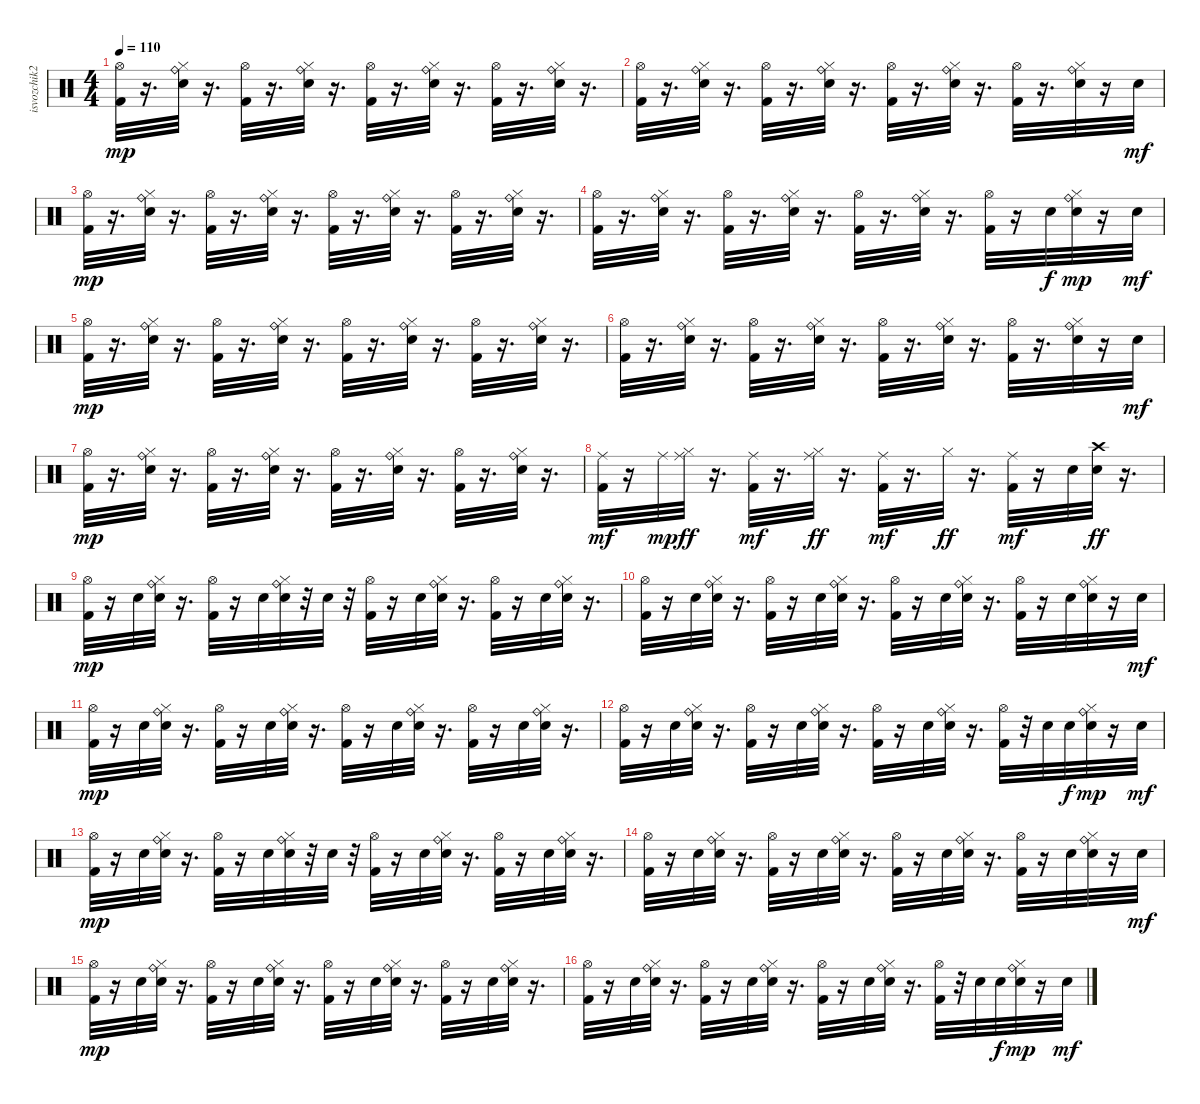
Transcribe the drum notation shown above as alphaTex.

\track ("isvozchik2" "isvozchik2") {instrument percussion}
\staff {score}
\articulation defaults
\ts (4 4)
\tempo 110
\clef neutral
\ks c
("Kick (hit) 2" "Hi-Hat (open)").32{dy mp} r.16{d} ("Hand Clap (hit)" "Hi-Hat (closed)" "Ride (bell)").32 r.16{d} ("Kick (hit) 2" "Hi-Hat (open)").32 r.16{d} ("Hand Clap (hit)" "Hi-Hat (closed)" "Ride (bell)").32 r.16{d} ("Kick (hit) 2" "Hi-Hat (open)").32 r.16{d} ("Hand Clap (hit)" "Hi-Hat (closed)" "Ride (bell)").32 r.16{d} ("Kick (hit) 2" "Hi-Hat (open)").32 r.16{d} ("Hand Clap (hit)" "Hi-Hat (closed)" "Ride (bell)").32 r.16{d} |
("Kick (hit) 2" "Hi-Hat (open)").32 r.16{d} ("Hand Clap (hit)" "Hi-Hat (closed)" "Ride (bell)").32 r.16{d} ("Kick (hit) 2" "Hi-Hat (open)").32 r.16{d} ("Hand Clap (hit)" "Hi-Hat (closed)" "Ride (bell)").32 r.16{d} ("Kick (hit) 2" "Hi-Hat (open)").32 r.16{d} ("Hand Clap (hit)" "Hi-Hat (closed)" "Ride (bell)").32 r.16{d} ("Kick (hit) 2" "Hi-Hat (open)").32 r.16{d} ("Hand Clap (hit)" "Hi-Hat (closed)" "Ride (bell)").32 r.16 "Hand Clap (hit)".32{dy mf} |
("Kick (hit) 2" "Hi-Hat (open)").32{dy mp} r.16{d} ("Hand Clap (hit)" "Hi-Hat (closed)" "Ride (bell)").32 r.16{d} ("Kick (hit) 2" "Hi-Hat (open)").32 r.16{d} ("Hand Clap (hit)" "Hi-Hat (closed)" "Ride (bell)").32 r.16{d} ("Kick (hit) 2" "Hi-Hat (open)").32 r.16{d} ("Hand Clap (hit)" "Hi-Hat (closed)" "Ride (bell)").32 r.16{d} ("Kick (hit) 2" "Hi-Hat (open)").32 r.16{d} ("Hand Clap (hit)" "Hi-Hat (closed)" "Ride (bell)").32 r.16{d} |
("Kick (hit) 2" "Hi-Hat (open)").32 r.16{d} ("Hand Clap (hit)" "Hi-Hat (closed)" "Ride (bell)").32 r.16{d} ("Kick (hit) 2" "Hi-Hat (open)").32 r.16{d} ("Hand Clap (hit)" "Hi-Hat (closed)" "Ride (bell)").32 r.16{d} ("Kick (hit) 2" "Hi-Hat (open)").32 r.16{d} ("Hand Clap (hit)" "Hi-Hat (closed)" "Ride (bell)").32 r.16{d} ("Kick (hit) 2" "Hi-Hat (open)").32 r.16 "Hand Clap (hit)".32{dy f} ("Hand Clap (hit)" "Hi-Hat (closed)" "Ride (bell)").32{dy mp} r.16 "Hand Clap (hit)".32{dy mf} |
("Kick (hit) 2" "Hi-Hat (open)").32{dy mp} r.16{d} ("Hand Clap (hit)" "Hi-Hat (closed)" "Ride (bell)").32 r.16{d} ("Kick (hit) 2" "Hi-Hat (open)").32 r.16{d} ("Hand Clap (hit)" "Hi-Hat (closed)" "Ride (bell)").32 r.16{d} ("Kick (hit) 2" "Hi-Hat (open)").32 r.16{d} ("Hand Clap (hit)" "Hi-Hat (closed)" "Ride (bell)").32 r.16{d} ("Kick (hit) 2" "Hi-Hat (open)").32 r.16{d} ("Hand Clap (hit)" "Hi-Hat (closed)" "Ride (bell)").32 r.16{d} |
("Kick (hit) 2" "Hi-Hat (open)").32 r.16{d} ("Hand Clap (hit)" "Hi-Hat (closed)" "Ride (bell)").32 r.16{d} ("Kick (hit) 2" "Hi-Hat (open)").32 r.16{d} ("Hand Clap (hit)" "Hi-Hat (closed)" "Ride (bell)").32 r.16{d} ("Kick (hit) 2" "Hi-Hat (open)").32 r.16{d} ("Hand Clap (hit)" "Hi-Hat (closed)" "Ride (bell)").32 r.16{d} ("Kick (hit) 2" "Hi-Hat (open)").32 r.16{d} ("Hand Clap (hit)" "Hi-Hat (closed)" "Ride (bell)").32 r.16 "Hand Clap (hit)".32{dy mf} |
("Kick (hit) 2" "Hi-Hat (open)").32{dy mp} r.16{d} ("Hand Clap (hit)" "Hi-Hat (closed)" "Ride (bell)").32 r.16{d} ("Kick (hit) 2" "Hi-Hat (open)").32 r.16{d} ("Hand Clap (hit)" "Hi-Hat (closed)" "Ride (bell)").32 r.16{d} ("Kick (hit) 2" "Hi-Hat (open)").32 r.16{d} ("Hand Clap (hit)" "Hi-Hat (closed)" "Ride (bell)").32 r.16{d} ("Kick (hit) 2" "Hi-Hat (open)").32 r.16{d} ("Hand Clap (hit)" "Hi-Hat (closed)" "Ride (bell)").32 r.16{d} |
("Kick (hit) 2" "Ride (middle)").32{dy mf} r.16 "Ride (middle)".32{dy mp} ("Ride (middle)" "Hi-Hat (closed)").32{dy ff} r.16{d} ("Kick (hit) 2" "Ride (middle)").32{dy mf} r.16{d} ("Ride (middle)" "Hi-Hat (closed)").32{dy ff} r.16{d} ("Kick (hit) 2" "Ride (middle)").32{dy mf} r.16{d} "Hi-Hat (closed)".32{dy ff} r.16{d} ("Kick (hit) 2" "Ride (middle)").32{dy mf} r.16 "Snare (hit) 2".32 ("Snare (hit) 2" "Crash high (hit)").32{dy ff} r.16{d} |
("Kick (hit) 2" "Hi-Hat (open)").32{dy mp} r.16 "Snare (hit) 2".32 ("Hand Clap (hit)" "Hi-Hat (closed)" "Ride (bell)").32 r.16{d} ("Kick (hit) 2" "Hi-Hat (open)").32 r.16 "Snare (hit) 2".32 ("Hand Clap (hit)" "Hi-Hat (closed)" "Ride (bell)").32 r.32 "Snare (hit) 2".32 r.32 ("Kick (hit) 2" "Hi-Hat (open)").32 r.16 "Snare (hit) 2".32 ("Hand Clap (hit)" "Hi-Hat (closed)" "Ride (bell)").32 r.16{d} ("Kick (hit) 2" "Hi-Hat (open)").32 r.16 "Snare (hit) 2".32 ("Hand Clap (hit)" "Hi-Hat (closed)" "Ride (bell)").32 r.16{d} |
("Kick (hit) 2" "Hi-Hat (open)").32 r.16 "Snare (hit) 2".32 ("Hand Clap (hit)" "Hi-Hat (closed)" "Ride (bell)").32 r.16{d} ("Kick (hit) 2" "Hi-Hat (open)").32 r.16 "Snare (hit) 2".32 ("Hand Clap (hit)" "Hi-Hat (closed)" "Ride (bell)").32 r.16{d} ("Kick (hit) 2" "Hi-Hat (open)").32 r.16 "Snare (hit) 2".32 ("Hand Clap (hit)" "Hi-Hat (closed)" "Ride (bell)").32 r.16{d} ("Kick (hit) 2" "Hi-Hat (open)").32 r.16 "Snare (hit) 2".32 ("Hand Clap (hit)" "Hi-Hat (closed)" "Ride (bell)").32 r.16 "Hand Clap (hit)".32{dy mf} |
("Kick (hit) 2" "Hi-Hat (open)").32{dy mp} r.16 "Snare (hit) 2".32 ("Hand Clap (hit)" "Hi-Hat (closed)" "Ride (bell)").32 r.16{d} ("Kick (hit) 2" "Hi-Hat (open)").32 r.16 "Snare (hit) 2".32 ("Hand Clap (hit)" "Hi-Hat (closed)" "Ride (bell)").32 r.16{d} ("Kick (hit) 2" "Hi-Hat (open)").32 r.16 "Snare (hit) 2".32 ("Hand Clap (hit)" "Hi-Hat (closed)" "Ride (bell)").32 r.16{d} ("Kick (hit) 2" "Hi-Hat (open)").32 r.16 "Snare (hit) 2".32 ("Hand Clap (hit)" "Hi-Hat (closed)" "Ride (bell)").32 r.16{d} |
("Kick (hit) 2" "Hi-Hat (open)").32 r.16 "Snare (hit) 2".32 ("Hand Clap (hit)" "Hi-Hat (closed)" "Ride (bell)").32 r.16{d} ("Kick (hit) 2" "Hi-Hat (open)").32 r.16 "Snare (hit) 2".32 ("Hand Clap (hit)" "Hi-Hat (closed)" "Ride (bell)").32 r.16{d} ("Kick (hit) 2" "Hi-Hat (open)").32 r.16 "Snare (hit) 2".32 ("Hand Clap (hit)" "Hi-Hat (closed)" "Ride (bell)").32 r.16{d} ("Kick (hit) 2" "Hi-Hat (open)").32 r.32 "Snare (hit) 2".32 "Hand Clap (hit)".32{dy f} ("Hand Clap (hit)" "Hi-Hat (closed)" "Ride (bell)").32{dy mp} r.16 "Hand Clap (hit)".32{dy mf} |
("Kick (hit) 2" "Hi-Hat (open)").32{dy mp} r.16 "Snare (hit) 2".32 ("Hand Clap (hit)" "Hi-Hat (closed)" "Ride (bell)").32 r.16{d} ("Kick (hit) 2" "Hi-Hat (open)").32 r.16 "Snare (hit) 2".32 ("Hand Clap (hit)" "Hi-Hat (closed)" "Ride (bell)").32 r.32 "Snare (hit) 2".32 r.32 ("Kick (hit) 2" "Hi-Hat (open)").32 r.16 "Snare (hit) 2".32 ("Hand Clap (hit)" "Hi-Hat (closed)" "Ride (bell)").32 r.16{d} ("Kick (hit) 2" "Hi-Hat (open)").32 r.16 "Snare (hit) 2".32 ("Hand Clap (hit)" "Hi-Hat (closed)" "Ride (bell)").32 r.16{d} |
("Kick (hit) 2" "Hi-Hat (open)").32 r.16 "Snare (hit) 2".32 ("Hand Clap (hit)" "Hi-Hat (closed)" "Ride (bell)").32 r.16{d} ("Kick (hit) 2" "Hi-Hat (open)").32 r.16 "Snare (hit) 2".32 ("Hand Clap (hit)" "Hi-Hat (closed)" "Ride (bell)").32 r.16{d} ("Kick (hit) 2" "Hi-Hat (open)").32 r.16 "Snare (hit) 2".32 ("Hand Clap (hit)" "Hi-Hat (closed)" "Ride (bell)").32 r.16{d} ("Kick (hit) 2" "Hi-Hat (open)").32 r.16 "Snare (hit) 2".32 ("Hand Clap (hit)" "Hi-Hat (closed)" "Ride (bell)").32 r.16 "Hand Clap (hit)".32{dy mf} |
("Kick (hit) 2" "Hi-Hat (open)").32{dy mp} r.16 "Snare (hit) 2".32 ("Hand Clap (hit)" "Hi-Hat (closed)" "Ride (bell)").32 r.16{d} ("Kick (hit) 2" "Hi-Hat (open)").32 r.16 "Snare (hit) 2".32 ("Hand Clap (hit)" "Hi-Hat (closed)" "Ride (bell)").32 r.16{d} ("Kick (hit) 2" "Hi-Hat (open)").32 r.16 "Snare (hit) 2".32 ("Hand Clap (hit)" "Hi-Hat (closed)" "Ride (bell)").32 r.16{d} ("Kick (hit) 2" "Hi-Hat (open)").32 r.16 "Snare (hit) 2".32 ("Hand Clap (hit)" "Hi-Hat (closed)" "Ride (bell)").32 r.16{d} |
("Kick (hit) 2" "Hi-Hat (open)").32 r.16 "Snare (hit) 2".32 ("Hand Clap (hit)" "Hi-Hat (closed)" "Ride (bell)").32 r.16{d} ("Kick (hit) 2" "Hi-Hat (open)").32 r.16 "Snare (hit) 2".32 ("Hand Clap (hit)" "Hi-Hat (closed)" "Ride (bell)").32 r.16{d} ("Kick (hit) 2" "Hi-Hat (open)").32 r.16 "Snare (hit) 2".32 ("Hand Clap (hit)" "Hi-Hat (closed)" "Ride (bell)").32 r.16{d} ("Kick (hit) 2" "Hi-Hat (open)").32 r.32 "Snare (hit) 2".32 "Hand Clap (hit)".32{dy f} ("Hand Clap (hit)" "Hi-Hat (closed)" "Ride (bell)").32{dy mp} r.16 "Hand Clap (hit)".32{dy mf}
